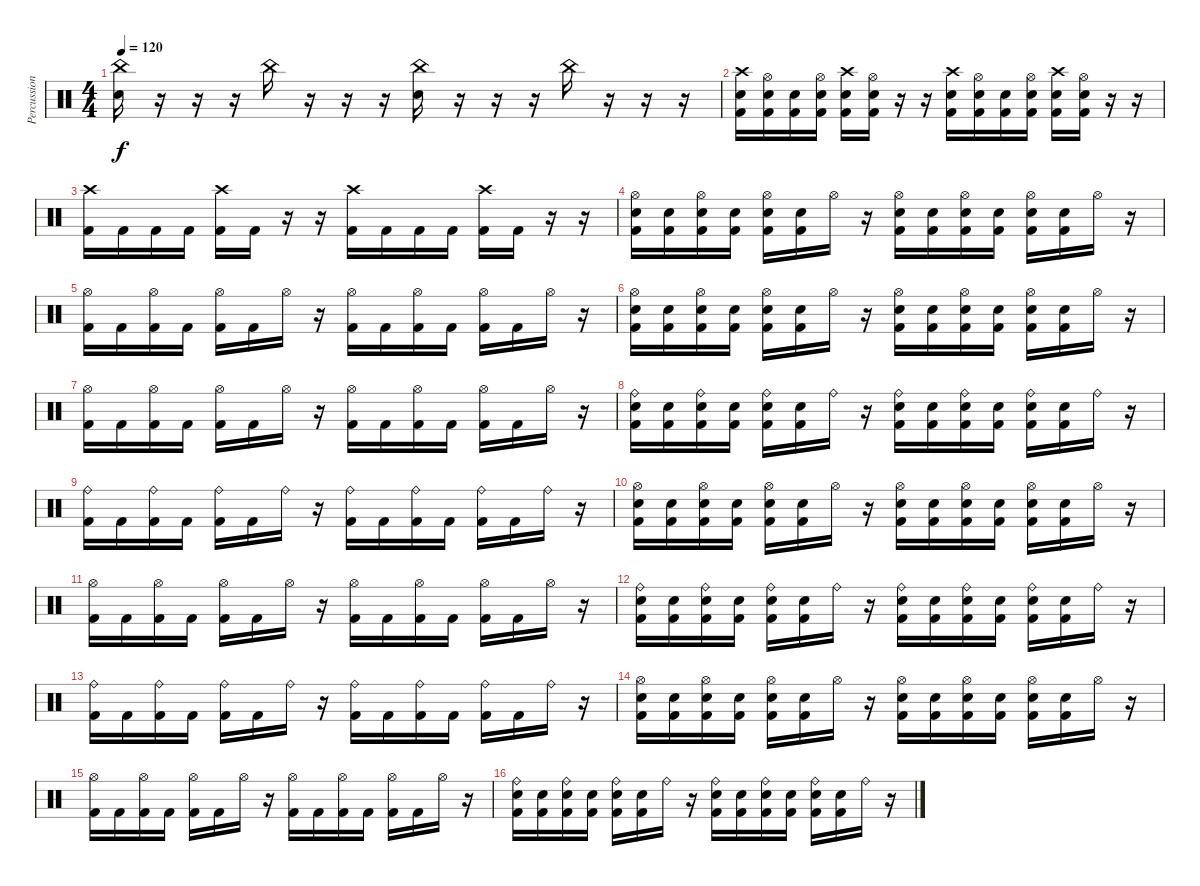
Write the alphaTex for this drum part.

\track ("Percussion" "Percussion") {instrument percussion}
\staff {score}
\articulation defaults
\ts (4 4)
\tempo 120
\clef neutral
\ks c
("China (hit)" "Electric Snare (hit)").16{dy f} r.16 r.16 r.16 "China (hit)".16 r.16 r.16 r.16 ("China (hit)" "Electric Snare (hit)").16 r.16 r.16 r.16 "China (hit)".16 r.16 r.16 r.16 |
("Crash high (hit)" "Electric Snare (hit)" "Kick (hit) 2").16 ("Hi-Hat (open)" "Electric Snare (hit)" "Kick (hit) 2").16 ("Electric Snare (hit)" "Kick (hit) 2").16 ("Hi-Hat (open)" "Electric Snare (hit)" "Kick (hit) 2").16 ("Crash high (hit)" "Electric Snare (hit)" "Kick (hit) 2").16 ("Hi-Hat (open)" "Electric Snare (hit)" "Kick (hit) 2").16 r.16 r.16 ("Crash high (hit)" "Electric Snare (hit)" "Kick (hit) 2").16 ("Hi-Hat (open)" "Electric Snare (hit)" "Kick (hit) 2").16 ("Electric Snare (hit)" "Kick (hit) 2").16 ("Hi-Hat (open)" "Electric Snare (hit)" "Kick (hit) 2").16 ("Crash high (hit)" "Electric Snare (hit)" "Kick (hit) 2").16 ("Hi-Hat (open)" "Electric Snare (hit)" "Kick (hit) 2").16 r.16 r.16 |
("Crash high (hit)" "Kick (hit) 2").16 "Kick (hit) 2".16 "Kick (hit) 2".16 "Kick (hit) 2".16 ("Crash high (hit)" "Kick (hit) 2").16 "Kick (hit) 2".16 r.16 r.16 ("Crash high (hit)" "Kick (hit) 2").16 "Kick (hit) 2".16 "Kick (hit) 2".16 "Kick (hit) 2".16 ("Crash high (hit)" "Kick (hit) 2").16 "Kick (hit) 2".16 r.16 r.16 |
("Hi-Hat (open)" "Electric Snare (hit)" "Kick (hit) 2").16 ("Electric Snare (hit)" "Kick (hit) 2").16 ("Hi-Hat (open)" "Electric Snare (hit)" "Kick (hit) 2").16 ("Electric Snare (hit)" "Kick (hit) 2").16 ("Hi-Hat (open)" "Electric Snare (hit)" "Kick (hit) 2").16 ("Electric Snare (hit)" "Kick (hit) 2").16 "Hi-Hat (open)".16 r.16 ("Hi-Hat (open)" "Electric Snare (hit)" "Kick (hit) 2").16 ("Electric Snare (hit)" "Kick (hit) 2").16 ("Hi-Hat (open)" "Electric Snare (hit)" "Kick (hit) 2").16 ("Electric Snare (hit)" "Kick (hit) 2").16 ("Hi-Hat (open)" "Electric Snare (hit)" "Kick (hit) 2").16 ("Electric Snare (hit)" "Kick (hit) 2").16 "Hi-Hat (open)".16 r.16 |
("Hi-Hat (open)" "Kick (hit) 2").16 "Kick (hit) 2".16 ("Hi-Hat (open)" "Kick (hit) 2").16 "Kick (hit) 2".16 ("Hi-Hat (open)" "Kick (hit) 2").16 "Kick (hit) 2".16 "Hi-Hat (open)".16 r.16 ("Hi-Hat (open)" "Kick (hit) 2").16 "Kick (hit) 2".16 ("Hi-Hat (open)" "Kick (hit) 2").16 "Kick (hit) 2".16 ("Hi-Hat (open)" "Kick (hit) 2").16 "Kick (hit) 2".16 "Hi-Hat (open)".16 r.16 |
("Hi-Hat (open)" "Electric Snare (hit)" "Kick (hit) 2").16 ("Electric Snare (hit)" "Kick (hit) 2").16 ("Hi-Hat (open)" "Electric Snare (hit)" "Kick (hit) 2").16 ("Electric Snare (hit)" "Kick (hit) 2").16 ("Hi-Hat (open)" "Electric Snare (hit)" "Kick (hit) 2").16 ("Electric Snare (hit)" "Kick (hit) 2").16 "Hi-Hat (open)".16 r.16 ("Hi-Hat (open)" "Electric Snare (hit)" "Kick (hit) 2").16 ("Electric Snare (hit)" "Kick (hit) 2").16 ("Hi-Hat (open)" "Electric Snare (hit)" "Kick (hit) 2").16 ("Electric Snare (hit)" "Kick (hit) 2").16 ("Hi-Hat (open)" "Electric Snare (hit)" "Kick (hit) 2").16 ("Electric Snare (hit)" "Kick (hit) 2").16 "Hi-Hat (open)".16 r.16 |
("Hi-Hat (open)" "Kick (hit) 2").16 "Kick (hit) 2".16 ("Hi-Hat (open)" "Kick (hit) 2").16 "Kick (hit) 2".16 ("Hi-Hat (open)" "Kick (hit) 2").16 "Kick (hit) 2".16 "Hi-Hat (open)".16 r.16 ("Hi-Hat (open)" "Kick (hit) 2").16 "Kick (hit) 2".16 ("Hi-Hat (open)" "Kick (hit) 2").16 "Kick (hit) 2".16 ("Hi-Hat (open)" "Kick (hit) 2").16 "Kick (hit) 2".16 "Hi-Hat (open)".16 r.16 |
("Ride (bell)" "Electric Snare (hit)" "Kick (hit) 2").16 ("Electric Snare (hit)" "Kick (hit) 2").16 ("Ride (bell)" "Electric Snare (hit)" "Kick (hit) 2").16 ("Electric Snare (hit)" "Kick (hit) 2").16 ("Ride (bell)" "Electric Snare (hit)" "Kick (hit) 2").16 ("Electric Snare (hit)" "Kick (hit) 2").16 "Ride (bell)".16 r.16 ("Ride (bell)" "Electric Snare (hit)" "Kick (hit) 2").16 ("Electric Snare (hit)" "Kick (hit) 2").16 ("Ride (bell)" "Electric Snare (hit)" "Kick (hit) 2").16 ("Electric Snare (hit)" "Kick (hit) 2").16 ("Ride (bell)" "Electric Snare (hit)" "Kick (hit) 2").16 ("Electric Snare (hit)" "Kick (hit) 2").16 "Ride (bell)".16 r.16 |
("Ride (bell)" "Kick (hit) 2").16 "Kick (hit) 2".16 ("Ride (bell)" "Kick (hit) 2").16 "Kick (hit) 2".16 ("Ride (bell)" "Kick (hit) 2").16 "Kick (hit) 2".16 "Ride (bell)".16 r.16 ("Ride (bell)" "Kick (hit) 2").16 "Kick (hit) 2".16 ("Ride (bell)" "Kick (hit) 2").16 "Kick (hit) 2".16 ("Ride (bell)" "Kick (hit) 2").16 "Kick (hit) 2".16 "Ride (bell)".16 r.16 |
("Hi-Hat (open)" "Electric Snare (hit)" "Kick (hit) 2").16 ("Electric Snare (hit)" "Kick (hit) 2").16 ("Hi-Hat (open)" "Electric Snare (hit)" "Kick (hit) 2").16 ("Electric Snare (hit)" "Kick (hit) 2").16 ("Hi-Hat (open)" "Electric Snare (hit)" "Kick (hit) 2").16 ("Electric Snare (hit)" "Kick (hit) 2").16 "Hi-Hat (open)".16 r.16 ("Hi-Hat (open)" "Electric Snare (hit)" "Kick (hit) 2").16 ("Electric Snare (hit)" "Kick (hit) 2").16 ("Hi-Hat (open)" "Electric Snare (hit)" "Kick (hit) 2").16 ("Electric Snare (hit)" "Kick (hit) 2").16 ("Hi-Hat (open)" "Electric Snare (hit)" "Kick (hit) 2").16 ("Electric Snare (hit)" "Kick (hit) 2").16 "Hi-Hat (open)".16 r.16 |
("Hi-Hat (open)" "Kick (hit) 2").16 "Kick (hit) 2".16 ("Hi-Hat (open)" "Kick (hit) 2").16 "Kick (hit) 2".16 ("Hi-Hat (open)" "Kick (hit) 2").16 "Kick (hit) 2".16 "Hi-Hat (open)".16 r.16 ("Hi-Hat (open)" "Kick (hit) 2").16 "Kick (hit) 2".16 ("Hi-Hat (open)" "Kick (hit) 2").16 "Kick (hit) 2".16 ("Hi-Hat (open)" "Kick (hit) 2").16 "Kick (hit) 2".16 "Hi-Hat (open)".16 r.16 |
("Ride (bell)" "Electric Snare (hit)" "Kick (hit) 2").16 ("Electric Snare (hit)" "Kick (hit) 2").16 ("Ride (bell)" "Electric Snare (hit)" "Kick (hit) 2").16 ("Electric Snare (hit)" "Kick (hit) 2").16 ("Ride (bell)" "Electric Snare (hit)" "Kick (hit) 2").16 ("Electric Snare (hit)" "Kick (hit) 2").16 "Ride (bell)".16 r.16 ("Ride (bell)" "Electric Snare (hit)" "Kick (hit) 2").16 ("Electric Snare (hit)" "Kick (hit) 2").16 ("Ride (bell)" "Electric Snare (hit)" "Kick (hit) 2").16 ("Electric Snare (hit)" "Kick (hit) 2").16 ("Ride (bell)" "Electric Snare (hit)" "Kick (hit) 2").16 ("Electric Snare (hit)" "Kick (hit) 2").16 "Ride (bell)".16 r.16 |
("Ride (bell)" "Kick (hit) 2").16 "Kick (hit) 2".16 ("Ride (bell)" "Kick (hit) 2").16 "Kick (hit) 2".16 ("Ride (bell)" "Kick (hit) 2").16 "Kick (hit) 2".16 "Ride (bell)".16 r.16 ("Ride (bell)" "Kick (hit) 2").16 "Kick (hit) 2".16 ("Ride (bell)" "Kick (hit) 2").16 "Kick (hit) 2".16 ("Ride (bell)" "Kick (hit) 2").16 "Kick (hit) 2".16 "Ride (bell)".16 r.16 |
("Hi-Hat (open)" "Electric Snare (hit)" "Kick (hit) 2").16 ("Electric Snare (hit)" "Kick (hit) 2").16 ("Hi-Hat (open)" "Electric Snare (hit)" "Kick (hit) 2").16 ("Electric Snare (hit)" "Kick (hit) 2").16 ("Hi-Hat (open)" "Electric Snare (hit)" "Kick (hit) 2").16 ("Electric Snare (hit)" "Kick (hit) 2").16 "Hi-Hat (open)".16 r.16 ("Hi-Hat (open)" "Electric Snare (hit)" "Kick (hit) 2").16 ("Electric Snare (hit)" "Kick (hit) 2").16 ("Hi-Hat (open)" "Electric Snare (hit)" "Kick (hit) 2").16 ("Electric Snare (hit)" "Kick (hit) 2").16 ("Hi-Hat (open)" "Electric Snare (hit)" "Kick (hit) 2").16 ("Electric Snare (hit)" "Kick (hit) 2").16 "Hi-Hat (open)".16 r.16 |
("Hi-Hat (open)" "Kick (hit) 2").16 "Kick (hit) 2".16 ("Hi-Hat (open)" "Kick (hit) 2").16 "Kick (hit) 2".16 ("Hi-Hat (open)" "Kick (hit) 2").16 "Kick (hit) 2".16 "Hi-Hat (open)".16 r.16 ("Hi-Hat (open)" "Kick (hit) 2").16 "Kick (hit) 2".16 ("Hi-Hat (open)" "Kick (hit) 2").16 "Kick (hit) 2".16 ("Hi-Hat (open)" "Kick (hit) 2").16 "Kick (hit) 2".16 "Hi-Hat (open)".16 r.16 |
("Ride (bell)" "Electric Snare (hit)" "Kick (hit) 2").16 ("Electric Snare (hit)" "Kick (hit) 2").16 ("Ride (bell)" "Electric Snare (hit)" "Kick (hit) 2").16 ("Electric Snare (hit)" "Kick (hit) 2").16 ("Ride (bell)" "Electric Snare (hit)" "Kick (hit) 2").16 ("Electric Snare (hit)" "Kick (hit) 2").16 "Ride (bell)".16 r.16 ("Ride (bell)" "Electric Snare (hit)" "Kick (hit) 2").16 ("Electric Snare (hit)" "Kick (hit) 2").16 ("Ride (bell)" "Electric Snare (hit)" "Kick (hit) 2").16 ("Electric Snare (hit)" "Kick (hit) 2").16 ("Ride (bell)" "Electric Snare (hit)" "Kick (hit) 2").16 ("Electric Snare (hit)" "Kick (hit) 2").16 "Ride (bell)".16 r.16
